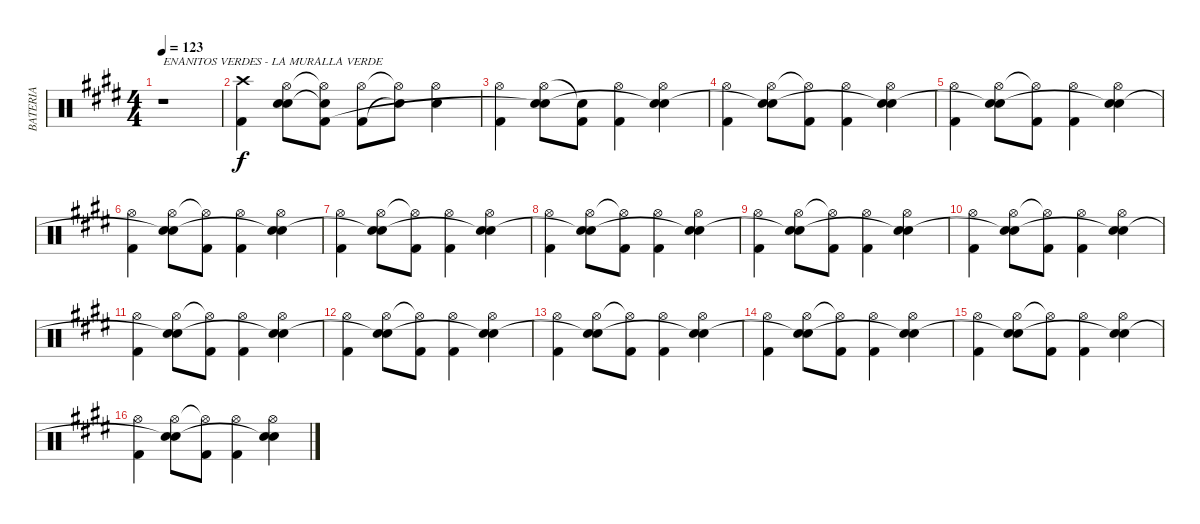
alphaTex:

\track ("BATERIA" "BATERIA") {instrument percussion}
\staff {score}
\articulation defaults
\ts (4 4)
\tempo 123
\clef neutral
\ks c#minor
r.1{txt "ENANITOS VERDES - LA MURALLA VERDE" dy f} |
("Crash high (hit)" "Kick (hit) 2").4 ("Hi-Hat (open)" "Snare (hit) 2" "Snare (hit)").8 ("Hi-Hat (open)"{t} "Snare (hit)"{t} "Kick (hit) 2").8 ("Hi-Hat (open)" "Kick (hit) 2").8 ("Hi-Hat (open)"{t} "Snare (hit)"{t}).8 ("Hi-Hat (open)" "Snare (hit) 2").4 |
("Hi-Hat (open)" "Kick (hit) 2").4 ("Hi-Hat (open)" "Snare (hit) 2" "Snare (hit)"{t}).8 ("Snare (hit)"{t} "Kick (hit) 2").8 ("Hi-Hat (open)" "Kick (hit) 2").4 ("Hi-Hat (open)" "Snare (hit) 2" "Snare (hit)"{t}).4 |
("Hi-Hat (open)" "Kick (hit) 2").4 ("Hi-Hat (open)" "Snare (hit) 2" "Snare (hit)"{t}).8 ("Hi-Hat (open)"{t} "Kick (hit) 2").8 ("Hi-Hat (open)" "Kick (hit) 2").4 ("Hi-Hat (open)" "Snare (hit) 2" "Snare (hit)"{t}).4 |
("Hi-Hat (open)" "Kick (hit) 2").4 ("Hi-Hat (open)" "Snare (hit) 2" "Snare (hit)"{t}).8 ("Hi-Hat (open)"{t} "Kick (hit) 2").8 ("Hi-Hat (open)" "Kick (hit) 2").4 ("Hi-Hat (open)" "Snare (hit) 2" "Snare (hit)"{t}).4 |
("Hi-Hat (open)" "Kick (hit) 2").4 ("Hi-Hat (open)" "Snare (hit) 2" "Snare (hit)"{t}).8 ("Hi-Hat (open)"{t} "Kick (hit) 2").8 ("Hi-Hat (open)" "Kick (hit) 2").4 ("Hi-Hat (open)" "Snare (hit) 2" "Snare (hit)"{t}).4 |
("Hi-Hat (open)" "Kick (hit) 2").4 ("Hi-Hat (open)" "Snare (hit) 2" "Snare (hit)"{t}).8 ("Hi-Hat (open)"{t} "Kick (hit) 2").8 ("Hi-Hat (open)" "Kick (hit) 2").4 ("Hi-Hat (open)" "Snare (hit) 2" "Snare (hit)"{t}).4 |
("Hi-Hat (open)" "Kick (hit) 2").4 ("Hi-Hat (open)" "Snare (hit) 2" "Snare (hit)"{t}).8 ("Hi-Hat (open)"{t} "Kick (hit) 2").8 ("Hi-Hat (open)" "Kick (hit) 2").4 ("Hi-Hat (open)" "Snare (hit) 2" "Snare (hit)"{t}).4 |
("Hi-Hat (open)" "Kick (hit) 2").4 ("Hi-Hat (open)" "Snare (hit) 2" "Snare (hit)"{t}).8 ("Hi-Hat (open)"{t} "Kick (hit) 2").8 ("Hi-Hat (open)" "Kick (hit) 2").4 ("Hi-Hat (open)" "Snare (hit) 2" "Snare (hit)"{t}).4 |
("Hi-Hat (open)" "Kick (hit) 2").4 ("Hi-Hat (open)" "Snare (hit) 2" "Snare (hit)"{t}).8 ("Hi-Hat (open)"{t} "Kick (hit) 2").8 ("Hi-Hat (open)" "Kick (hit) 2").4 ("Hi-Hat (open)" "Snare (hit) 2" "Snare (hit)"{t}).4 |
("Hi-Hat (open)" "Kick (hit) 2").4 ("Hi-Hat (open)" "Snare (hit) 2" "Snare (hit)"{t}).8 ("Hi-Hat (open)"{t} "Kick (hit) 2").8 ("Hi-Hat (open)" "Kick (hit) 2").4 ("Hi-Hat (open)" "Snare (hit) 2" "Snare (hit)"{t}).4 |
("Hi-Hat (open)" "Kick (hit) 2").4 ("Hi-Hat (open)" "Snare (hit) 2" "Snare (hit)"{t}).8 ("Hi-Hat (open)"{t} "Kick (hit) 2").8 ("Hi-Hat (open)" "Kick (hit) 2").4 ("Hi-Hat (open)" "Snare (hit) 2" "Snare (hit)"{t}).4 |
("Hi-Hat (open)" "Kick (hit) 2").4 ("Hi-Hat (open)" "Snare (hit) 2" "Snare (hit)"{t}).8 ("Hi-Hat (open)"{t} "Kick (hit) 2").8 ("Hi-Hat (open)" "Kick (hit) 2").4 ("Hi-Hat (open)" "Snare (hit) 2" "Snare (hit)"{t}).4 |
("Hi-Hat (open)" "Kick (hit) 2").4 ("Hi-Hat (open)" "Snare (hit) 2" "Snare (hit)"{t}).8 ("Hi-Hat (open)"{t} "Kick (hit) 2").8 ("Hi-Hat (open)" "Kick (hit) 2").4 ("Hi-Hat (open)" "Snare (hit) 2" "Snare (hit)"{t}).4 |
("Hi-Hat (open)" "Kick (hit) 2").4 ("Hi-Hat (open)" "Snare (hit) 2" "Snare (hit)"{t}).8 ("Hi-Hat (open)"{t} "Kick (hit) 2").8 ("Hi-Hat (open)" "Kick (hit) 2").4 ("Hi-Hat (open)" "Snare (hit) 2" "Snare (hit)"{t}).4 |
("Hi-Hat (open)" "Kick (hit) 2").4 ("Hi-Hat (open)" "Snare (hit) 2" "Snare (hit)"{t}).8 ("Hi-Hat (open)"{t} "Kick (hit) 2").8 ("Hi-Hat (open)" "Kick (hit) 2").4 ("Hi-Hat (open)" "Snare (hit) 2" "Snare (hit)"{t}).4
